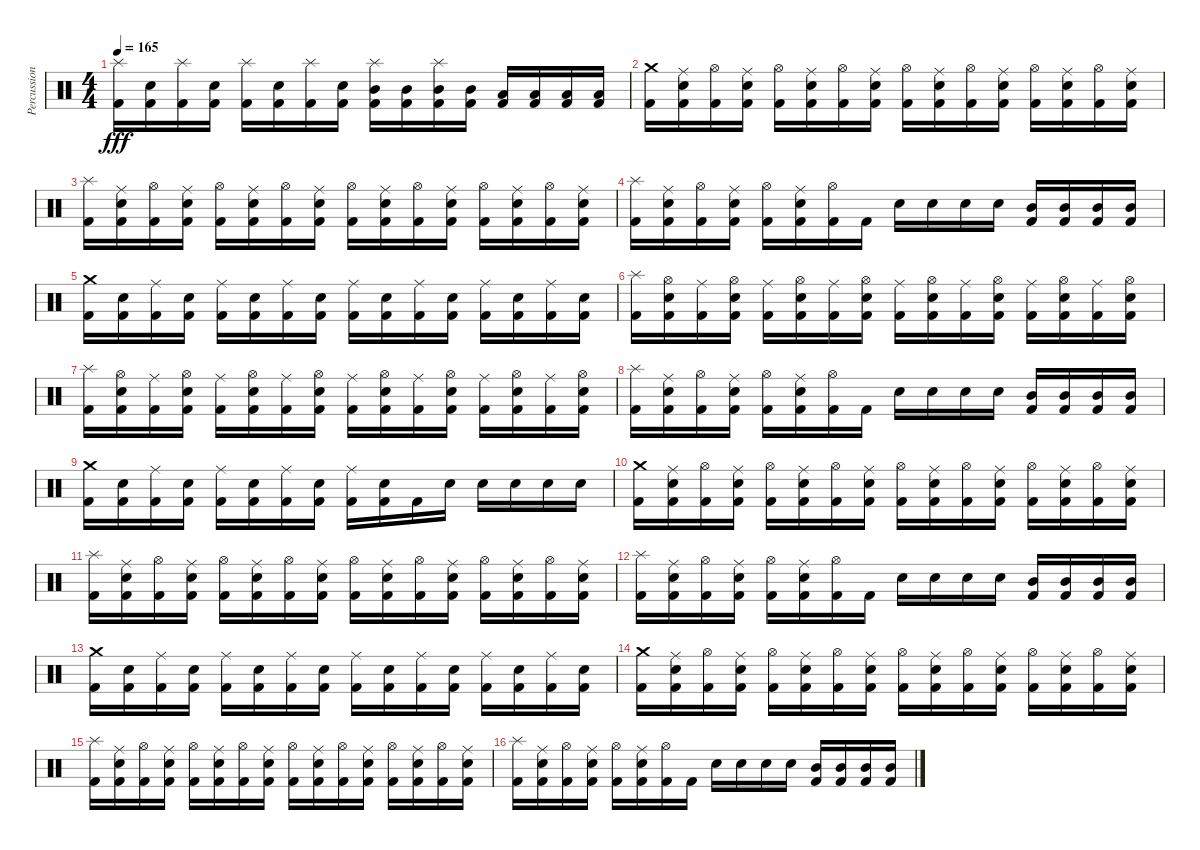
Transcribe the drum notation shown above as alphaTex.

\track ("Percussions" "Percussion") {instrument percussion}
\staff {score}
\articulation defaults
\ts (4 4)
\tempo 165
\clef neutral
\ks c
("Splash (hit)" "Kick (hit) 2").16{dy fff} ("Electric Snare (hit)" "Kick (hit) 2").16 ("Splash (hit)" "Kick (hit) 2").16 ("Electric Snare (hit)" "Kick (hit) 2").16 ("Splash (hit)" "Kick (hit) 2").16 ("Electric Snare (hit)" "Kick (hit) 2").16 ("Splash (hit)" "Kick (hit) 2").16 ("Electric Snare (hit)" "Kick (hit) 2").16 ("Splash (hit)" "Mid Tom (hit)" "Kick (hit) 2").16 ("Mid Tom (hit)" "Kick (hit) 2").16 ("Splash (hit)" "Mid Tom (hit)" "Kick (hit) 2").16 ("Mid Tom (hit)" "Kick (hit) 2").16 ("Low Tom (hit)" "Kick (hit) 2").16 ("Low Tom (hit)" "Kick (hit) 2").16 ("Low Tom (hit)" "Kick (hit) 2").16 ("Low Tom (hit)" "Kick (hit) 2").16 |
("Crash medium (hit)" "Kick (hit) 2").16 ("Ride (middle)" "Electric Snare (hit)" "Kick (hit) 2").16 ("Hi-Hat (open)" "Kick (hit) 2").16 ("Ride (middle)" "Electric Snare (hit)" "Kick (hit) 2").16 ("Hi-Hat (open)" "Kick (hit) 2").16 ("Ride (middle)" "Electric Snare (hit)" "Kick (hit) 2").16 ("Hi-Hat (open)" "Kick (hit) 2").16 ("Ride (middle)" "Electric Snare (hit)" "Kick (hit) 2").16 ("Hi-Hat (open)" "Kick (hit) 2").16 ("Ride (middle)" "Electric Snare (hit)" "Kick (hit) 2").16 ("Hi-Hat (open)" "Kick (hit) 2").16 ("Ride (middle)" "Electric Snare (hit)" "Kick (hit) 2").16 ("Hi-Hat (open)" "Kick (hit) 2").16 ("Ride (middle)" "Electric Snare (hit)" "Kick (hit) 2").16 ("Hi-Hat (open)" "Kick (hit) 2").16 ("Ride (middle)" "Electric Snare (hit)" "Kick (hit) 2").16 |
("Splash (hit)" "Kick (hit) 2").16 ("Ride (middle)" "Electric Snare (hit)" "Kick (hit) 2").16 ("Hi-Hat (open)" "Kick (hit) 2").16 ("Ride (middle)" "Electric Snare (hit)" "Kick (hit) 2").16 ("Hi-Hat (open)" "Kick (hit) 2").16 ("Ride (middle)" "Electric Snare (hit)" "Kick (hit) 2").16 ("Hi-Hat (open)" "Kick (hit) 2").16 ("Ride (middle)" "Electric Snare (hit)" "Kick (hit) 2").16 ("Hi-Hat (open)" "Kick (hit) 2").16 ("Ride (middle)" "Electric Snare (hit)" "Kick (hit) 2").16 ("Hi-Hat (open)" "Kick (hit) 2").16 ("Ride (middle)" "Electric Snare (hit)" "Kick (hit) 2").16 ("Hi-Hat (open)" "Kick (hit) 2").16 ("Ride (middle)" "Electric Snare (hit)" "Kick (hit) 2").16 ("Hi-Hat (open)" "Kick (hit) 2").16 ("Ride (middle)" "Electric Snare (hit)" "Kick (hit) 2").16 |
("Splash (hit)" "Kick (hit) 2").16 ("Ride (middle)" "Electric Snare (hit)" "Kick (hit) 2").16 ("Hi-Hat (open)" "Kick (hit) 2").16 ("Ride (middle)" "Electric Snare (hit)" "Kick (hit) 2").16 ("Hi-Hat (open)" "Kick (hit) 2").16 ("Ride (middle)" "Electric Snare (hit)" "Kick (hit) 2").16 ("Hi-Hat (open)" "Kick (hit) 2").16 "Kick (hit) 2".16 "Electric Snare (hit)".16 "Electric Snare (hit)".16 "Electric Snare (hit)".16 "Electric Snare (hit)".16 ("Mid Tom (hit)" "Kick (hit) 2").16 ("Mid Tom (hit)" "Kick (hit) 2").16 ("Mid Tom (hit)" "Kick (hit) 2").16 ("Mid Tom (hit)" "Kick (hit) 2").16 |
("Crash medium (hit)" "Kick (hit) 2").16 ("Electric Snare (hit)" "Kick (hit) 2").16 ("Ride (middle)" "Kick (hit) 2").16 ("Electric Snare (hit)" "Kick (hit) 2").16 ("Ride (middle)" "Kick (hit) 2").16 ("Electric Snare (hit)" "Kick (hit) 2").16 ("Ride (middle)" "Kick (hit) 2").16 ("Electric Snare (hit)" "Kick (hit) 2").16 ("Ride (middle)" "Kick (hit) 2").16 ("Electric Snare (hit)" "Kick (hit) 2").16 ("Ride (middle)" "Kick (hit) 2").16 ("Electric Snare (hit)" "Kick (hit) 2").16 ("Ride (middle)" "Kick (hit) 2").16 ("Electric Snare (hit)" "Kick (hit) 2").16 ("Ride (middle)" "Kick (hit) 2").16 ("Electric Snare (hit)" "Kick (hit) 2").16 |
("Splash (hit)" "Kick (hit) 2").16 ("Hi-Hat (open)" "Electric Snare (hit)" "Kick (hit) 2").16 ("Ride (middle)" "Kick (hit) 2").16 ("Hi-Hat (open)" "Electric Snare (hit)" "Kick (hit) 2").16 ("Ride (middle)" "Kick (hit) 2").16 ("Hi-Hat (open)" "Electric Snare (hit)" "Kick (hit) 2").16 ("Ride (middle)" "Kick (hit) 2").16 ("Hi-Hat (open)" "Electric Snare (hit)" "Kick (hit) 2").16 ("Ride (middle)" "Kick (hit) 2").16 ("Hi-Hat (open)" "Electric Snare (hit)" "Kick (hit) 2").16 ("Ride (middle)" "Kick (hit) 2").16 ("Hi-Hat (open)" "Electric Snare (hit)" "Kick (hit) 2").16 ("Ride (middle)" "Kick (hit) 2").16 ("Hi-Hat (open)" "Electric Snare (hit)" "Kick (hit) 2").16 ("Ride (middle)" "Kick (hit) 2").16 ("Hi-Hat (open)" "Electric Snare (hit)" "Kick (hit) 2").16 |
("Splash (hit)" "Kick (hit) 2").16 ("Hi-Hat (open)" "Electric Snare (hit)" "Kick (hit) 2").16 ("Ride (middle)" "Kick (hit) 2").16 ("Hi-Hat (open)" "Electric Snare (hit)" "Kick (hit) 2").16 ("Ride (middle)" "Kick (hit) 2").16 ("Hi-Hat (open)" "Electric Snare (hit)" "Kick (hit) 2").16 ("Ride (middle)" "Kick (hit) 2").16 ("Hi-Hat (open)" "Electric Snare (hit)" "Kick (hit) 2").16 ("Ride (middle)" "Kick (hit) 2").16 ("Hi-Hat (open)" "Electric Snare (hit)" "Kick (hit) 2").16 ("Ride (middle)" "Kick (hit) 2").16 ("Hi-Hat (open)" "Electric Snare (hit)" "Kick (hit) 2").16 ("Ride (middle)" "Kick (hit) 2").16 ("Hi-Hat (open)" "Electric Snare (hit)" "Kick (hit) 2").16 ("Ride (middle)" "Kick (hit) 2").16 ("Hi-Hat (open)" "Electric Snare (hit)" "Kick (hit) 2").16 |
("Splash (hit)" "Kick (hit) 2").16 ("Ride (middle)" "Electric Snare (hit)" "Kick (hit) 2").16 ("Hi-Hat (open)" "Kick (hit) 2").16 ("Ride (middle)" "Electric Snare (hit)" "Kick (hit) 2").16 ("Hi-Hat (open)" "Kick (hit) 2").16 ("Ride (middle)" "Electric Snare (hit)" "Kick (hit) 2").16 ("Hi-Hat (open)" "Kick (hit) 2").16 "Kick (hit) 2".16 "Electric Snare (hit)".16 "Electric Snare (hit)".16 "Electric Snare (hit)".16 "Electric Snare (hit)".16 ("Mid Tom (hit)" "Kick (hit) 2").16 ("Mid Tom (hit)" "Kick (hit) 2").16 ("Mid Tom (hit)" "Kick (hit) 2").16 ("Mid Tom (hit)" "Kick (hit) 2").16 |
("Crash medium (hit)" "Kick (hit) 2").16 ("Electric Snare (hit)" "Kick (hit) 2").16 ("Ride (middle)" "Kick (hit) 2").16 ("Electric Snare (hit)" "Kick (hit) 2").16 ("Ride (middle)" "Kick (hit) 2").16 ("Electric Snare (hit)" "Kick (hit) 2").16 ("Ride (middle)" "Kick (hit) 2").16 ("Electric Snare (hit)" "Kick (hit) 2").16 ("Ride (middle)" "Kick (hit) 2").16 ("Electric Snare (hit)" "Kick (hit) 2").16 "Kick (hit) 2".16 "Electric Snare (hit)".16 "Electric Snare (hit)".16 "Electric Snare (hit)".16 "Electric Snare (hit)".16 "Electric Snare (hit)".16 |
("Crash medium (hit)" "Kick (hit) 2").16 ("Ride (middle)" "Electric Snare (hit)" "Kick (hit) 2").16 ("Hi-Hat (open)" "Kick (hit) 2").16 ("Ride (middle)" "Electric Snare (hit)" "Kick (hit) 2").16 ("Hi-Hat (open)" "Kick (hit) 2").16 ("Ride (middle)" "Electric Snare (hit)" "Kick (hit) 2").16 ("Hi-Hat (open)" "Kick (hit) 2").16 ("Ride (middle)" "Electric Snare (hit)" "Kick (hit) 2").16 ("Hi-Hat (open)" "Kick (hit) 2").16 ("Ride (middle)" "Electric Snare (hit)" "Kick (hit) 2").16 ("Hi-Hat (open)" "Kick (hit) 2").16 ("Ride (middle)" "Electric Snare (hit)" "Kick (hit) 2").16 ("Hi-Hat (open)" "Kick (hit) 2").16 ("Ride (middle)" "Electric Snare (hit)" "Kick (hit) 2").16 ("Hi-Hat (open)" "Kick (hit) 2").16 ("Ride (middle)" "Electric Snare (hit)" "Kick (hit) 2").16 |
("Splash (hit)" "Kick (hit) 2").16 ("Ride (middle)" "Electric Snare (hit)" "Kick (hit) 2").16 ("Hi-Hat (open)" "Kick (hit) 2").16 ("Ride (middle)" "Electric Snare (hit)" "Kick (hit) 2").16 ("Hi-Hat (open)" "Kick (hit) 2").16 ("Ride (middle)" "Electric Snare (hit)" "Kick (hit) 2").16 ("Hi-Hat (open)" "Kick (hit) 2").16 ("Ride (middle)" "Electric Snare (hit)" "Kick (hit) 2").16 ("Hi-Hat (open)" "Kick (hit) 2").16 ("Ride (middle)" "Electric Snare (hit)" "Kick (hit) 2").16 ("Hi-Hat (open)" "Kick (hit) 2").16 ("Ride (middle)" "Electric Snare (hit)" "Kick (hit) 2").16 ("Hi-Hat (open)" "Kick (hit) 2").16 ("Ride (middle)" "Electric Snare (hit)" "Kick (hit) 2").16 ("Hi-Hat (open)" "Kick (hit) 2").16 ("Ride (middle)" "Electric Snare (hit)" "Kick (hit) 2").16 |
("Splash (hit)" "Kick (hit) 2").16 ("Ride (middle)" "Electric Snare (hit)" "Kick (hit) 2").16 ("Hi-Hat (open)" "Kick (hit) 2").16 ("Ride (middle)" "Electric Snare (hit)" "Kick (hit) 2").16 ("Hi-Hat (open)" "Kick (hit) 2").16 ("Ride (middle)" "Electric Snare (hit)" "Kick (hit) 2").16 ("Hi-Hat (open)" "Kick (hit) 2").16 "Kick (hit) 2".16 "Electric Snare (hit)".16 "Electric Snare (hit)".16 "Electric Snare (hit)".16 "Electric Snare (hit)".16 ("Mid Tom (hit)" "Kick (hit) 2").16 ("Mid Tom (hit)" "Kick (hit) 2").16 ("Mid Tom (hit)" "Kick (hit) 2").16 ("Mid Tom (hit)" "Kick (hit) 2").16 |
("Crash medium (hit)" "Kick (hit) 2").16 ("Electric Snare (hit)" "Kick (hit) 2").16 ("Ride (middle)" "Kick (hit) 2").16 ("Electric Snare (hit)" "Kick (hit) 2").16 ("Ride (middle)" "Kick (hit) 2").16 ("Electric Snare (hit)" "Kick (hit) 2").16 ("Ride (middle)" "Kick (hit) 2").16 ("Electric Snare (hit)" "Kick (hit) 2").16 ("Ride (middle)" "Kick (hit) 2").16 ("Electric Snare (hit)" "Kick (hit) 2").16 ("Ride (middle)" "Kick (hit) 2").16 ("Electric Snare (hit)" "Kick (hit) 2").16 ("Ride (middle)" "Kick (hit) 2").16 ("Electric Snare (hit)" "Kick (hit) 2").16 ("Ride (middle)" "Kick (hit) 2").16 ("Electric Snare (hit)" "Kick (hit) 2").16 |
("Crash medium (hit)" "Kick (hit) 2").16 ("Ride (middle)" "Electric Snare (hit)" "Kick (hit) 2").16 ("Hi-Hat (open)" "Kick (hit) 2").16 ("Ride (middle)" "Electric Snare (hit)" "Kick (hit) 2").16 ("Hi-Hat (open)" "Kick (hit) 2").16 ("Ride (middle)" "Electric Snare (hit)" "Kick (hit) 2").16 ("Hi-Hat (open)" "Kick (hit) 2").16 ("Ride (middle)" "Electric Snare (hit)" "Kick (hit) 2").16 ("Hi-Hat (open)" "Kick (hit) 2").16 ("Ride (middle)" "Electric Snare (hit)" "Kick (hit) 2").16 ("Hi-Hat (open)" "Kick (hit) 2").16 ("Ride (middle)" "Electric Snare (hit)" "Kick (hit) 2").16 ("Hi-Hat (open)" "Kick (hit) 2").16 ("Ride (middle)" "Electric Snare (hit)" "Kick (hit) 2").16 ("Hi-Hat (open)" "Kick (hit) 2").16 ("Ride (middle)" "Electric Snare (hit)" "Kick (hit) 2").16 |
("Splash (hit)" "Kick (hit) 2").16 ("Ride (middle)" "Electric Snare (hit)" "Kick (hit) 2").16 ("Hi-Hat (open)" "Kick (hit) 2").16 ("Ride (middle)" "Electric Snare (hit)" "Kick (hit) 2").16 ("Hi-Hat (open)" "Kick (hit) 2").16 ("Ride (middle)" "Electric Snare (hit)" "Kick (hit) 2").16 ("Hi-Hat (open)" "Kick (hit) 2").16 ("Ride (middle)" "Electric Snare (hit)" "Kick (hit) 2").16 ("Hi-Hat (open)" "Kick (hit) 2").16 ("Ride (middle)" "Electric Snare (hit)" "Kick (hit) 2").16 ("Hi-Hat (open)" "Kick (hit) 2").16 ("Ride (middle)" "Electric Snare (hit)" "Kick (hit) 2").16 ("Hi-Hat (open)" "Kick (hit) 2").16 ("Ride (middle)" "Electric Snare (hit)" "Kick (hit) 2").16 ("Hi-Hat (open)" "Kick (hit) 2").16 ("Ride (middle)" "Electric Snare (hit)" "Kick (hit) 2").16 |
("Splash (hit)" "Kick (hit) 2").16 ("Ride (middle)" "Electric Snare (hit)" "Kick (hit) 2").16 ("Hi-Hat (open)" "Kick (hit) 2").16 ("Ride (middle)" "Electric Snare (hit)" "Kick (hit) 2").16 ("Hi-Hat (open)" "Kick (hit) 2").16 ("Ride (middle)" "Electric Snare (hit)" "Kick (hit) 2").16 ("Hi-Hat (open)" "Kick (hit) 2").16 "Kick (hit) 2".16 "Electric Snare (hit)".16 "Electric Snare (hit)".16 "Electric Snare (hit)".16 "Electric Snare (hit)".16 ("Mid Tom (hit)" "Kick (hit) 2").16 ("Mid Tom (hit)" "Kick (hit) 2").16 ("Mid Tom (hit)" "Kick (hit) 2").16 ("Mid Tom (hit)" "Kick (hit) 2").16
